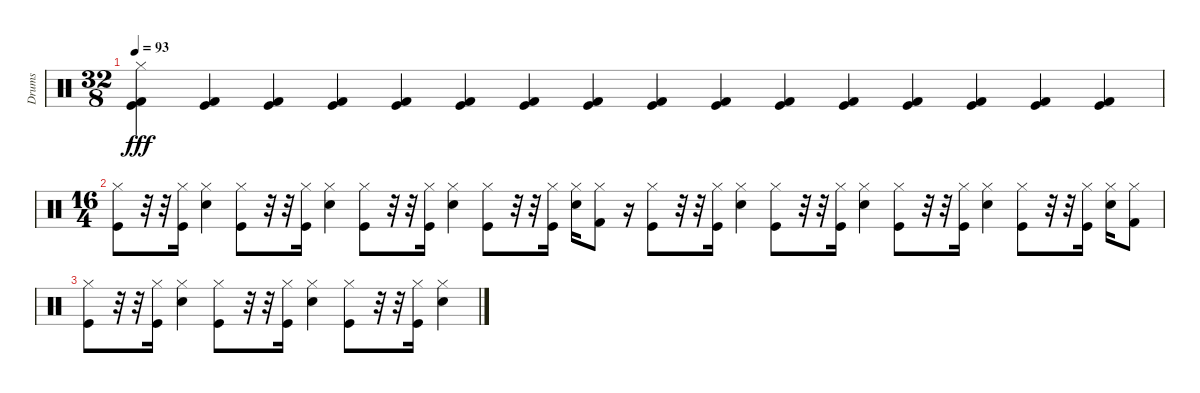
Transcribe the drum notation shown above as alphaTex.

\track ("Drums" "Drums") {solo instrument percussion}
\staff {score}
\articulation defaults
\ts (32 8)
\tempo 93
\clef neutral
\ks c
("Hi-Hat (closed)" "Kick (hit)" "Kick (hit) 2").4{dy fff} ("Kick (hit)" "Kick (hit) 2").4 ("Kick (hit)" "Kick (hit) 2").4 ("Kick (hit)" "Kick (hit) 2").4 ("Kick (hit)" "Kick (hit) 2").4 ("Kick (hit)" "Kick (hit) 2").4 ("Kick (hit)" "Kick (hit) 2").4 ("Kick (hit)" "Kick (hit) 2").4 ("Kick (hit)" "Kick (hit) 2").4 ("Kick (hit)" "Kick (hit) 2").4 ("Kick (hit)" "Kick (hit) 2").4 ("Kick (hit)" "Kick (hit) 2").4 ("Kick (hit)" "Kick (hit) 2").4 ("Kick (hit)" "Kick (hit) 2").4 ("Kick (hit)" "Kick (hit) 2").4 ("Kick (hit)" "Kick (hit) 2").4 |
\ts (16 4)
("Hi-Hat (closed)" "Kick (hit)").8 r.32 r.32 ("Hi-Hat (closed)" "Kick (hit)").16 ("Hi-Hat (closed)" "Snare (hit) 2").4 ("Hi-Hat (closed)" "Kick (hit)").8 r.32 r.32 ("Hi-Hat (closed)" "Kick (hit)").16 ("Hi-Hat (closed)" "Snare (hit) 2").4 ("Hi-Hat (closed)" "Kick (hit)").8 r.32 r.32 ("Hi-Hat (closed)" "Kick (hit)").16 ("Hi-Hat (closed)" "Snare (hit) 2").4 ("Hi-Hat (closed)" "Kick (hit)").8 r.32 r.32 ("Hi-Hat (closed)" "Kick (hit)").16 ("Hi-Hat (closed)" "Snare (hit) 2").16 ("Kick (hit) 2" "Hi-Hat (closed)").8 r.16 ("Hi-Hat (closed)" "Kick (hit)").8 r.32 r.32 ("Hi-Hat (closed)" "Kick (hit)").16 ("Hi-Hat (closed)" "Snare (hit) 2").4 ("Hi-Hat (closed)" "Kick (hit)").8 r.32 r.32 ("Hi-Hat (closed)" "Kick (hit)").16 ("Hi-Hat (closed)" "Snare (hit) 2").4 ("Hi-Hat (closed)" "Kick (hit)").8 r.32 r.32 ("Hi-Hat (closed)" "Kick (hit)").16 ("Hi-Hat (closed)" "Snare (hit) 2").4 ("Hi-Hat (closed)" "Kick (hit)").8 r.32 r.32 ("Hi-Hat (closed)" "Kick (hit)").16 ("Hi-Hat (closed)" "Snare (hit) 2").16 ("Kick (hit) 2" "Hi-Hat (closed)").8 |
("Hi-Hat (closed)" "Kick (hit)").8 r.32 r.32 ("Hi-Hat (closed)" "Kick (hit)").16 ("Hi-Hat (closed)" "Snare (hit) 2").4 ("Hi-Hat (closed)" "Kick (hit)").8 r.32 r.32 ("Hi-Hat (closed)" "Kick (hit)").16 ("Hi-Hat (closed)" "Snare (hit) 2").4 ("Hi-Hat (closed)" "Kick (hit)").8 r.32 r.32 ("Hi-Hat (closed)" "Kick (hit)").16 ("Hi-Hat (closed)" "Snare (hit) 2").4
